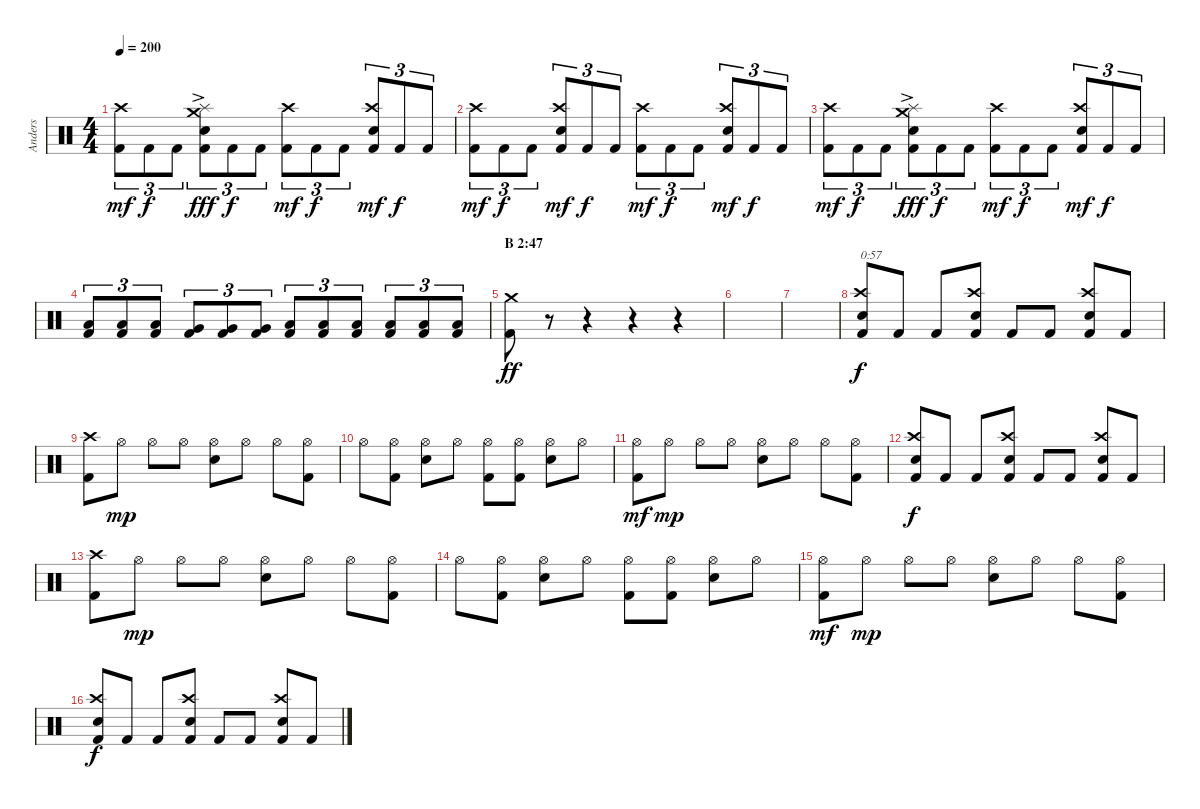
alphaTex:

\track ("Anders" "Anders") {instrument percussion}
\staff {score}
\articulation defaults
\ts (4 4)
\tempo 200
\clef neutral
\ks c
("Kick (hit) 2" "Crash high (hit)").8{tu (3 2) dy mf} "Kick (hit) 2".8{tu (3 2) dy f} "Kick (hit) 2".8{tu (3 2)} ("Kick (hit) 2" "Electric Snare (hit)" "Splash (hit)" "Crash medium (hit)"{ac}).8{tu (3 2) dy fff} "Kick (hit) 2".8{tu (3 2) dy f} "Kick (hit) 2".8{tu (3 2)} ("Kick (hit) 2" "Crash high (hit)").8{tu (3 2) dy mf} "Kick (hit) 2".8{tu (3 2) dy f} "Kick (hit) 2".8{tu (3 2)} ("Kick (hit) 2" "Electric Snare (hit)" "Crash high (hit)").8{tu (3 2) dy mf} "Kick (hit) 2".8{tu (3 2) dy f} "Kick (hit) 2".8{tu (3 2)} |
("Kick (hit) 2" "Crash high (hit)").8{tu (3 2) dy mf} "Kick (hit) 2".8{tu (3 2) dy f} "Kick (hit) 2".8{tu (3 2)} ("Kick (hit) 2" "Electric Snare (hit)" "Crash high (hit)").8{tu (3 2) dy mf} "Kick (hit) 2".8{tu (3 2) dy f} "Kick (hit) 2".8{tu (3 2)} ("Kick (hit) 2" "Crash high (hit)").8{tu (3 2) dy mf} "Kick (hit) 2".8{tu (3 2) dy f} "Kick (hit) 2".8{tu (3 2)} ("Kick (hit) 2" "Electric Snare (hit)" "Crash high (hit)").8{tu (3 2) dy mf} "Kick (hit) 2".8{tu (3 2) dy f} "Kick (hit) 2".8{tu (3 2)} |
("Kick (hit) 2" "Crash high (hit)").8{tu (3 2) dy mf} "Kick (hit) 2".8{tu (3 2) dy f} "Kick (hit) 2".8{tu (3 2)} ("Kick (hit) 2" "Electric Snare (hit)" "Splash (hit)" "Crash medium (hit)"{ac}).8{tu (3 2) dy fff} "Kick (hit) 2".8{tu (3 2) dy f} "Kick (hit) 2".8{tu (3 2)} ("Kick (hit) 2" "Crash high (hit)").8{tu (3 2) dy mf} "Kick (hit) 2".8{tu (3 2) dy f} "Kick (hit) 2".8{tu (3 2)} ("Kick (hit) 2" "Electric Snare (hit)" "Crash high (hit)").8{tu (3 2) dy mf} "Kick (hit) 2".8{tu (3 2) dy f} "Kick (hit) 2".8{tu (3 2)} |
("Kick (hit) 2" "Low Tom (hit)").8{tu (3 2)} ("Kick (hit) 2" "Low Tom (hit)").8{tu (3 2)} ("Kick (hit) 2" "Low Tom (hit)").8{tu (3 2)} ("Kick (hit) 2" "Very Low Tom (hit)").8{tu (3 2)} ("Kick (hit) 2" "Very Low Tom (hit)").8{tu (3 2)} ("Kick (hit) 2" "Very Low Tom (hit)").8{tu (3 2)} ("Kick (hit) 2" "Low Tom (hit)").8{tu (3 2)} ("Kick (hit) 2" "Low Tom (hit)").8{tu (3 2)} ("Kick (hit) 2" "Low Tom (hit)").8{tu (3 2)} ("Kick (hit) 2" "Low Floor Tom (hit)").8{tu (3 2)} ("Kick (hit) 2" "Low Floor Tom (hit)").8{tu (3 2)} ("Kick (hit) 2" "Low Floor Tom (hit)").8{tu (3 2)} |
\section ("" "B 2:47")
("Kick (hit) 2" "Crash medium (hit)").8{dy ff} r.8{volume 0} r.4 r.4 r.4 |
|
|
("Kick (hit) 2" "Electric Snare (hit)" "Crash high (hit)").8{txt "0:57" dy f volume 16} "Kick (hit) 2".8 "Kick (hit) 2".8 ("Kick (hit) 2" "Electric Snare (hit)" "Crash high (hit)").8 "Kick (hit) 2".8 "Kick (hit) 2".8 ("Kick (hit) 2" "Electric Snare (hit)" "Crash high (hit)").8 "Kick (hit) 2".8 |
("Kick (hit) 2" "Crash high (hit)").8 "Hi-Hat (open)".8{dy mp} "Hi-Hat (open)".8 "Hi-Hat (open)".8 ("Electric Snare (hit)" "Hi-Hat (open)").8 "Hi-Hat (open)".8 "Hi-Hat (open)".8 ("Kick (hit) 2" "Hi-Hat (open)").8 |
"Hi-Hat (open)".8 ("Kick (hit) 2" "Hi-Hat (open)").8 ("Electric Snare (hit)" "Hi-Hat (open)").8 "Hi-Hat (open)".8 ("Kick (hit) 2" "Hi-Hat (open)").8 ("Kick (hit) 2" "Hi-Hat (open)").8 ("Electric Snare (hit)" "Hi-Hat (open)").8 "Hi-Hat (open)".8 |
("Kick (hit) 2" "Hi-Hat (open)").8{dy mf} "Hi-Hat (open)".8{dy mp} "Hi-Hat (open)".8 "Hi-Hat (open)".8 ("Electric Snare (hit)" "Hi-Hat (open)").8 "Hi-Hat (open)".8 "Hi-Hat (open)".8 ("Kick (hit) 2" "Hi-Hat (open)").8 |
("Kick (hit) 2" "Electric Snare (hit)" "Crash high (hit)").8{dy f} "Kick (hit) 2".8 "Kick (hit) 2".8 ("Kick (hit) 2" "Electric Snare (hit)" "Crash high (hit)").8 "Kick (hit) 2".8 "Kick (hit) 2".8 ("Kick (hit) 2" "Electric Snare (hit)" "Crash high (hit)").8 "Kick (hit) 2".8 |
("Kick (hit) 2" "Crash high (hit)").8 "Hi-Hat (open)".8{dy mp} "Hi-Hat (open)".8 "Hi-Hat (open)".8 ("Electric Snare (hit)" "Hi-Hat (open)").8 "Hi-Hat (open)".8 "Hi-Hat (open)".8 ("Kick (hit) 2" "Hi-Hat (open)").8 |
"Hi-Hat (open)".8 ("Kick (hit) 2" "Hi-Hat (open)").8 ("Electric Snare (hit)" "Hi-Hat (open)").8 "Hi-Hat (open)".8 ("Kick (hit) 2" "Hi-Hat (open)").8 ("Kick (hit) 2" "Hi-Hat (open)").8 ("Electric Snare (hit)" "Hi-Hat (open)").8 "Hi-Hat (open)".8 |
("Kick (hit) 2" "Hi-Hat (open)").8{dy mf} "Hi-Hat (open)".8{dy mp} "Hi-Hat (open)".8 "Hi-Hat (open)".8 ("Electric Snare (hit)" "Hi-Hat (open)").8 "Hi-Hat (open)".8 "Hi-Hat (open)".8 ("Kick (hit) 2" "Hi-Hat (open)").8 |
("Kick (hit) 2" "Electric Snare (hit)" "Crash high (hit)").8{dy f} "Kick (hit) 2".8 "Kick (hit) 2".8 ("Kick (hit) 2" "Electric Snare (hit)" "Crash high (hit)").8 "Kick (hit) 2".8 "Kick (hit) 2".8 ("Kick (hit) 2" "Electric Snare (hit)" "Crash high (hit)").8 "Kick (hit) 2".8
